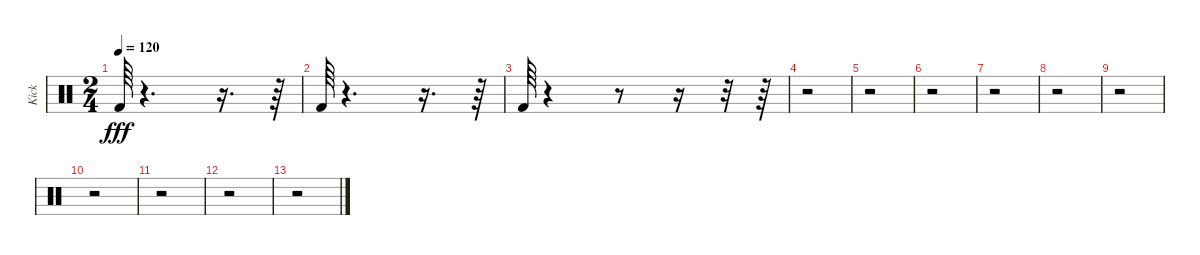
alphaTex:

\track ("Kick" "Kick") {instrument percussion}
\staff {score}
\articulation defaults
\ts (2 4)
\tempo 120
\clef neutral
\ks c "Kick (hit) 2".64{dy fff}
r.4{d} r.16{d} r.64 |
"Kick (hit) 2".64 r.4{d} r.16{d} r.64 |
"Kick (hit) 2".64 r.4 r.8 r.16 r.32 r.64 |
r.2 |
r.2 |
r.2 |
r.2 |
r.2 |
r.2 |
r.2 |
r.2 |
r.2 |
r.2
